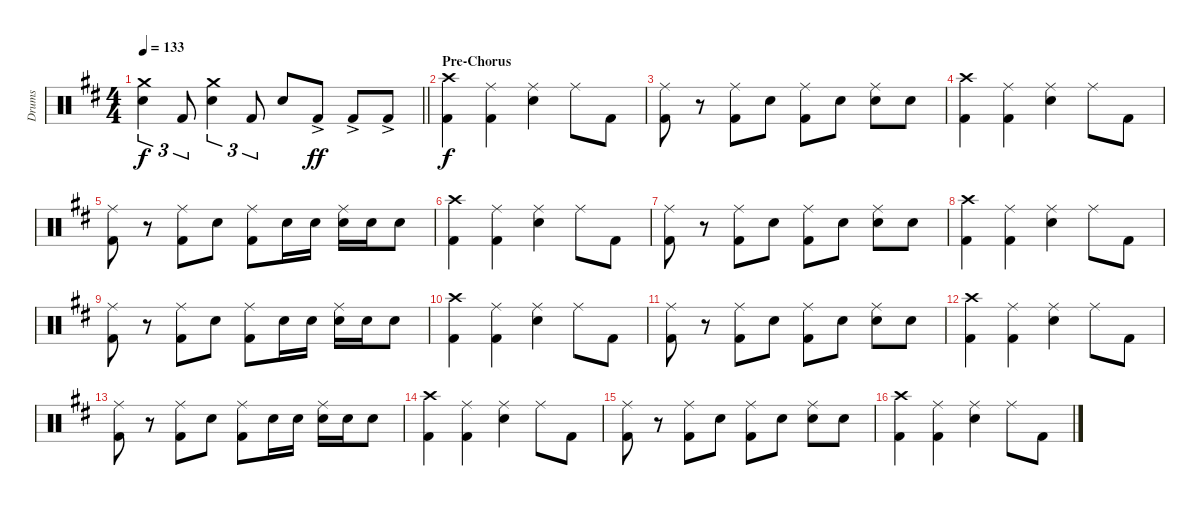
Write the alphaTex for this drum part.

\track ("Drums" "Drums") {instrument percussion}
\staff {score}
\articulation defaults
\ts (4 4)
\tempo 133
\clef neutral
\barLineRight lightlight
\ks d
("Crash medium (hit)" "Snare (hit) 2").4{tu (3 2) dy f} "Kick (hit) 2".8{tu (3 2)} ("Crash medium (hit)" "Snare (hit) 2").4{tu (3 2)} "Kick (hit) 2".8{tu (3 2)} "Snare (hit) 2".8 "Kick (hit) 2"{ac}.8{dy ff} "Kick (hit) 2"{ac}.8 "Kick (hit) 2"{ac}.8 |
\section ("" "Pre-Chorus")
("Crash high (hit)" "Kick (hit) 2").4{dy f} ("Ride (middle)" "Kick (hit) 2").4 ("Ride (middle)" "Snare (hit) 2").4 "Ride (middle)".8 "Kick (hit) 2".8 |
("Ride (middle)" "Kick (hit) 2").8 r.8 ("Ride (middle)" "Kick (hit) 2").8 "Snare (hit) 2".8 ("Ride (middle)" "Kick (hit) 2").8 "Snare (hit) 2".8 ("Ride (middle)" "Snare (hit) 2").8 "Snare (hit) 2".8 |
("Crash high (hit)" "Kick (hit) 2").4 ("Ride (middle)" "Kick (hit) 2").4 ("Ride (middle)" "Snare (hit) 2").4 "Ride (middle)".8 "Kick (hit) 2".8 |
("Ride (middle)" "Kick (hit) 2").8 r.8 ("Ride (middle)" "Kick (hit) 2").8 "Snare (hit) 2".8 ("Ride (middle)" "Kick (hit) 2").8 "Snare (hit) 2".16 "Snare (hit) 2".16 ("Ride (middle)" "Snare (hit) 2").16 "Snare (hit) 2".16 "Snare (hit) 2".8 |
("Crash high (hit)" "Kick (hit) 2").4 ("Ride (middle)" "Kick (hit) 2").4 ("Ride (middle)" "Snare (hit) 2").4 "Ride (middle)".8 "Kick (hit) 2".8 |
("Ride (middle)" "Kick (hit) 2").8 r.8 ("Ride (middle)" "Kick (hit) 2").8 "Snare (hit) 2".8 ("Ride (middle)" "Kick (hit) 2").8 "Snare (hit) 2".8 ("Ride (middle)" "Snare (hit) 2").8 "Snare (hit) 2".8 |
("Crash high (hit)" "Kick (hit) 2").4 ("Ride (middle)" "Kick (hit) 2").4 ("Ride (middle)" "Snare (hit) 2").4 "Ride (middle)".8 "Kick (hit) 2".8 |
("Ride (middle)" "Kick (hit) 2").8 r.8 ("Ride (middle)" "Kick (hit) 2").8 "Snare (hit) 2".8 ("Ride (middle)" "Kick (hit) 2").8 "Snare (hit) 2".16 "Snare (hit) 2".16 ("Ride (middle)" "Snare (hit) 2").16 "Snare (hit) 2".16 "Snare (hit) 2".8 |
("Crash high (hit)" "Kick (hit) 2").4 ("Ride (middle)" "Kick (hit) 2").4 ("Ride (middle)" "Snare (hit) 2").4 "Ride (middle)".8 "Kick (hit) 2".8 |
("Ride (middle)" "Kick (hit) 2").8 r.8 ("Ride (middle)" "Kick (hit) 2").8 "Snare (hit) 2".8 ("Ride (middle)" "Kick (hit) 2").8 "Snare (hit) 2".8 ("Ride (middle)" "Snare (hit) 2").8 "Snare (hit) 2".8 |
("Crash high (hit)" "Kick (hit) 2").4 ("Ride (middle)" "Kick (hit) 2").4 ("Ride (middle)" "Snare (hit) 2").4 "Ride (middle)".8 "Kick (hit) 2".8 |
("Ride (middle)" "Kick (hit) 2").8 r.8 ("Ride (middle)" "Kick (hit) 2").8 "Snare (hit) 2".8 ("Ride (middle)" "Kick (hit) 2").8 "Snare (hit) 2".16 "Snare (hit) 2".16 ("Ride (middle)" "Snare (hit) 2").16 "Snare (hit) 2".16 "Snare (hit) 2".8 |
("Crash high (hit)" "Kick (hit) 2").4 ("Ride (middle)" "Kick (hit) 2").4 ("Ride (middle)" "Snare (hit) 2").4 "Ride (middle)".8 "Kick (hit) 2".8 |
("Ride (middle)" "Kick (hit) 2").8 r.8 ("Ride (middle)" "Kick (hit) 2").8 "Snare (hit) 2".8 ("Ride (middle)" "Kick (hit) 2").8 "Snare (hit) 2".8 ("Ride (middle)" "Snare (hit) 2").8 "Snare (hit) 2".8 |
("Crash high (hit)" "Kick (hit) 2").4 ("Ride (middle)" "Kick (hit) 2").4 ("Ride (middle)" "Snare (hit) 2").4 "Ride (middle)".8 "Kick (hit) 2".8
